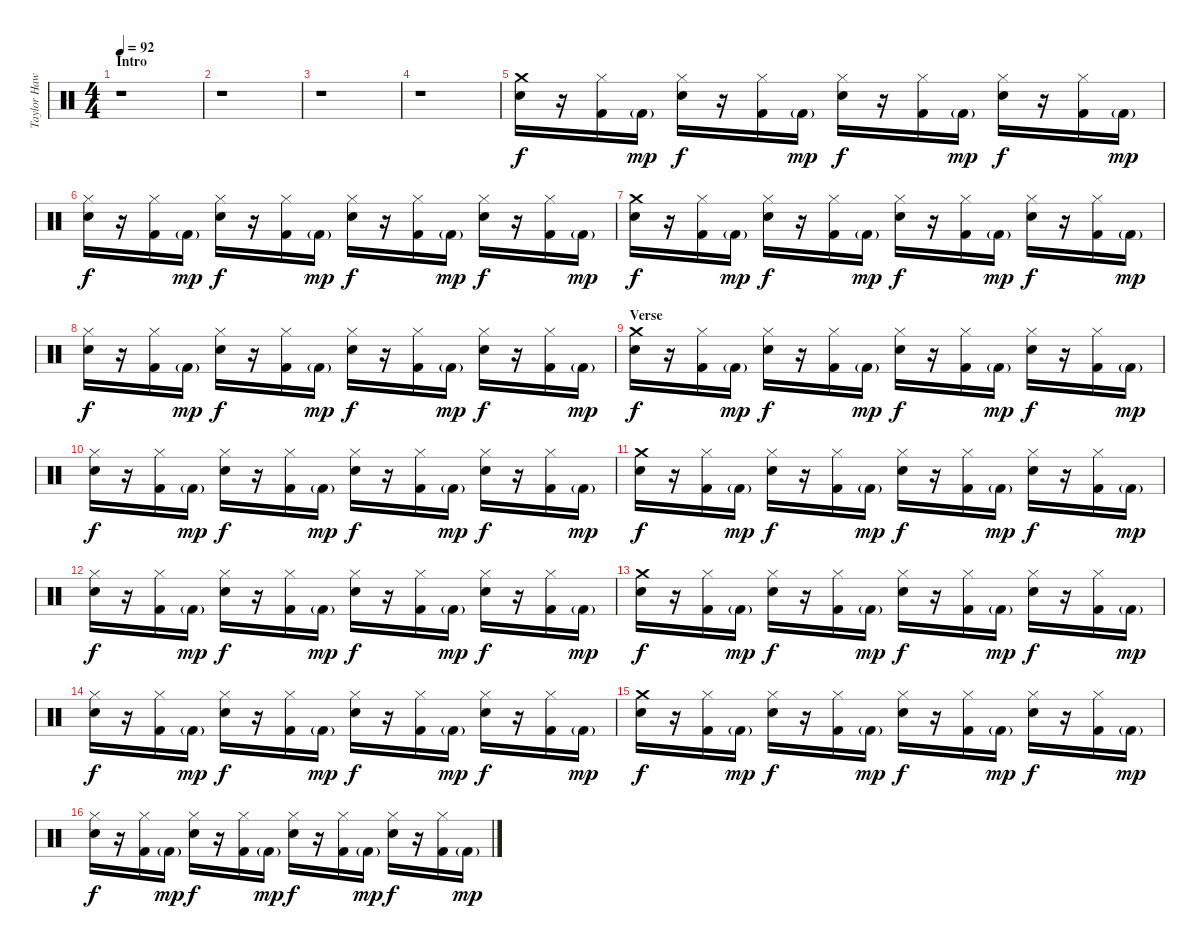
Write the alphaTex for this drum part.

\track ("Taylor Hawkins (Drums)" "Taylor Haw") {instrument percussion}
\staff {score}
\articulation defaults
\ts (4 4)
\section ("" "Intro")
\tempo 92
\clef neutral
\ks c
r.1{dy f} |
r.1 |
r.1 |
r.1 |
("Crash medium (hit)" "Electric Snare (hit)").16 r.16 ("Hi-Hat (closed)" "Kick (hit) 2").16 "Kick (hit) 2"{g}.16{dy mp} ("Hi-Hat (closed)" "Electric Snare (hit)").16{dy f} r.16 ("Hi-Hat (closed)" "Kick (hit) 2").16 "Kick (hit) 2"{g}.16{dy mp} ("Hi-Hat (closed)" "Electric Snare (hit)").16{dy f} r.16 ("Hi-Hat (closed)" "Kick (hit) 2").16 "Kick (hit) 2"{g}.16{dy mp} ("Hi-Hat (closed)" "Electric Snare (hit)").16{dy f} r.16 ("Hi-Hat (closed)" "Kick (hit) 2").16 "Kick (hit) 2"{g}.16{dy mp} |
("Hi-Hat (closed)" "Electric Snare (hit)").16{dy f} r.16 ("Hi-Hat (closed)" "Kick (hit) 2").16 "Kick (hit) 2"{g}.16{dy mp} ("Hi-Hat (closed)" "Electric Snare (hit)").16{dy f} r.16 ("Hi-Hat (closed)" "Kick (hit) 2").16 "Kick (hit) 2"{g}.16{dy mp} ("Hi-Hat (closed)" "Electric Snare (hit)").16{dy f} r.16 ("Hi-Hat (closed)" "Kick (hit) 2").16 "Kick (hit) 2"{g}.16{dy mp} ("Hi-Hat (closed)" "Electric Snare (hit)").16{dy f} r.16 ("Hi-Hat (closed)" "Kick (hit) 2").16 "Kick (hit) 2"{g}.16{dy mp} |
("Crash medium (hit)" "Electric Snare (hit)").16{dy f} r.16 ("Hi-Hat (closed)" "Kick (hit) 2").16 "Kick (hit) 2"{g}.16{dy mp} ("Hi-Hat (closed)" "Electric Snare (hit)").16{dy f} r.16 ("Hi-Hat (closed)" "Kick (hit) 2").16 "Kick (hit) 2"{g}.16{dy mp} ("Hi-Hat (closed)" "Electric Snare (hit)").16{dy f} r.16 ("Hi-Hat (closed)" "Kick (hit) 2").16 "Kick (hit) 2"{g}.16{dy mp} ("Hi-Hat (closed)" "Electric Snare (hit)").16{dy f} r.16 ("Hi-Hat (closed)" "Kick (hit) 2").16 "Kick (hit) 2"{g}.16{dy mp} |
("Hi-Hat (closed)" "Electric Snare (hit)").16{dy f} r.16 ("Hi-Hat (closed)" "Kick (hit) 2").16 "Kick (hit) 2"{g}.16{dy mp} ("Hi-Hat (closed)" "Electric Snare (hit)").16{dy f} r.16 ("Hi-Hat (closed)" "Kick (hit) 2").16 "Kick (hit) 2"{g}.16{dy mp} ("Hi-Hat (closed)" "Electric Snare (hit)").16{dy f} r.16 ("Hi-Hat (closed)" "Kick (hit) 2").16 "Kick (hit) 2"{g}.16{dy mp} ("Hi-Hat (closed)" "Electric Snare (hit)").16{dy f} r.16 ("Hi-Hat (closed)" "Kick (hit) 2").16 "Kick (hit) 2"{g}.16{dy mp} |
\section ("" "Verse")
("Crash medium (hit)" "Electric Snare (hit)").16{dy f} r.16 ("Hi-Hat (closed)" "Kick (hit) 2").16 "Kick (hit) 2"{g}.16{dy mp} ("Hi-Hat (closed)" "Electric Snare (hit)").16{dy f} r.16 ("Hi-Hat (closed)" "Kick (hit) 2").16 "Kick (hit) 2"{g}.16{dy mp} ("Hi-Hat (closed)" "Electric Snare (hit)").16{dy f} r.16 ("Hi-Hat (closed)" "Kick (hit) 2").16 "Kick (hit) 2"{g}.16{dy mp} ("Hi-Hat (closed)" "Electric Snare (hit)").16{dy f} r.16 ("Hi-Hat (closed)" "Kick (hit) 2").16 "Kick (hit) 2"{g}.16{dy mp} |
("Hi-Hat (closed)" "Electric Snare (hit)").16{dy f} r.16 ("Hi-Hat (closed)" "Kick (hit) 2").16 "Kick (hit) 2"{g}.16{dy mp} ("Hi-Hat (closed)" "Electric Snare (hit)").16{dy f} r.16 ("Hi-Hat (closed)" "Kick (hit) 2").16 "Kick (hit) 2"{g}.16{dy mp} ("Hi-Hat (closed)" "Electric Snare (hit)").16{dy f} r.16 ("Hi-Hat (closed)" "Kick (hit) 2").16 "Kick (hit) 2"{g}.16{dy mp} ("Hi-Hat (closed)" "Electric Snare (hit)").16{dy f} r.16 ("Hi-Hat (closed)" "Kick (hit) 2").16 "Kick (hit) 2"{g}.16{dy mp} |
("Crash medium (hit)" "Electric Snare (hit)").16{dy f} r.16 ("Hi-Hat (closed)" "Kick (hit) 2").16 "Kick (hit) 2"{g}.16{dy mp} ("Hi-Hat (closed)" "Electric Snare (hit)").16{dy f} r.16 ("Hi-Hat (closed)" "Kick (hit) 2").16 "Kick (hit) 2"{g}.16{dy mp} ("Hi-Hat (closed)" "Electric Snare (hit)").16{dy f} r.16 ("Hi-Hat (closed)" "Kick (hit) 2").16 "Kick (hit) 2"{g}.16{dy mp} ("Hi-Hat (closed)" "Electric Snare (hit)").16{dy f} r.16 ("Hi-Hat (closed)" "Kick (hit) 2").16 "Kick (hit) 2"{g}.16{dy mp} |
("Hi-Hat (closed)" "Electric Snare (hit)").16{dy f} r.16 ("Hi-Hat (closed)" "Kick (hit) 2").16 "Kick (hit) 2"{g}.16{dy mp} ("Hi-Hat (closed)" "Electric Snare (hit)").16{dy f} r.16 ("Hi-Hat (closed)" "Kick (hit) 2").16 "Kick (hit) 2"{g}.16{dy mp} ("Hi-Hat (closed)" "Electric Snare (hit)").16{dy f} r.16 ("Hi-Hat (closed)" "Kick (hit) 2").16 "Kick (hit) 2"{g}.16{dy mp} ("Hi-Hat (closed)" "Electric Snare (hit)").16{dy f} r.16 ("Hi-Hat (closed)" "Kick (hit) 2").16 "Kick (hit) 2"{g}.16{dy mp} |
("Crash medium (hit)" "Electric Snare (hit)").16{dy f} r.16 ("Hi-Hat (closed)" "Kick (hit) 2").16 "Kick (hit) 2"{g}.16{dy mp} ("Hi-Hat (closed)" "Electric Snare (hit)").16{dy f} r.16 ("Hi-Hat (closed)" "Kick (hit) 2").16 "Kick (hit) 2"{g}.16{dy mp} ("Hi-Hat (closed)" "Electric Snare (hit)").16{dy f} r.16 ("Hi-Hat (closed)" "Kick (hit) 2").16 "Kick (hit) 2"{g}.16{dy mp} ("Hi-Hat (closed)" "Electric Snare (hit)").16{dy f} r.16 ("Hi-Hat (closed)" "Kick (hit) 2").16 "Kick (hit) 2"{g}.16{dy mp} |
("Hi-Hat (closed)" "Electric Snare (hit)").16{dy f} r.16 ("Hi-Hat (closed)" "Kick (hit) 2").16 "Kick (hit) 2"{g}.16{dy mp} ("Hi-Hat (closed)" "Electric Snare (hit)").16{dy f} r.16 ("Hi-Hat (closed)" "Kick (hit) 2").16 "Kick (hit) 2"{g}.16{dy mp} ("Hi-Hat (closed)" "Electric Snare (hit)").16{dy f} r.16 ("Hi-Hat (closed)" "Kick (hit) 2").16 "Kick (hit) 2"{g}.16{dy mp} ("Hi-Hat (closed)" "Electric Snare (hit)").16{dy f} r.16 ("Hi-Hat (closed)" "Kick (hit) 2").16 "Kick (hit) 2"{g}.16{dy mp} |
("Crash medium (hit)" "Electric Snare (hit)").16{dy f} r.16 ("Hi-Hat (closed)" "Kick (hit) 2").16 "Kick (hit) 2"{g}.16{dy mp} ("Hi-Hat (closed)" "Electric Snare (hit)").16{dy f} r.16 ("Hi-Hat (closed)" "Kick (hit) 2").16 "Kick (hit) 2"{g}.16{dy mp} ("Hi-Hat (closed)" "Electric Snare (hit)").16{dy f} r.16 ("Hi-Hat (closed)" "Kick (hit) 2").16 "Kick (hit) 2"{g}.16{dy mp} ("Hi-Hat (closed)" "Electric Snare (hit)").16{dy f} r.16 ("Hi-Hat (closed)" "Kick (hit) 2").16 "Kick (hit) 2"{g}.16{dy mp} |
("Hi-Hat (closed)" "Electric Snare (hit)").16{dy f} r.16 ("Hi-Hat (closed)" "Kick (hit) 2").16 "Kick (hit) 2"{g}.16{dy mp} ("Hi-Hat (closed)" "Electric Snare (hit)").16{dy f} r.16 ("Hi-Hat (closed)" "Kick (hit) 2").16 "Kick (hit) 2"{g}.16{dy mp} ("Hi-Hat (closed)" "Electric Snare (hit)").16{dy f} r.16 ("Hi-Hat (closed)" "Kick (hit) 2").16 "Kick (hit) 2"{g}.16{dy mp} ("Hi-Hat (closed)" "Electric Snare (hit)").16{dy f} r.16 ("Hi-Hat (closed)" "Kick (hit) 2").16 "Kick (hit) 2"{g}.16{dy mp}
